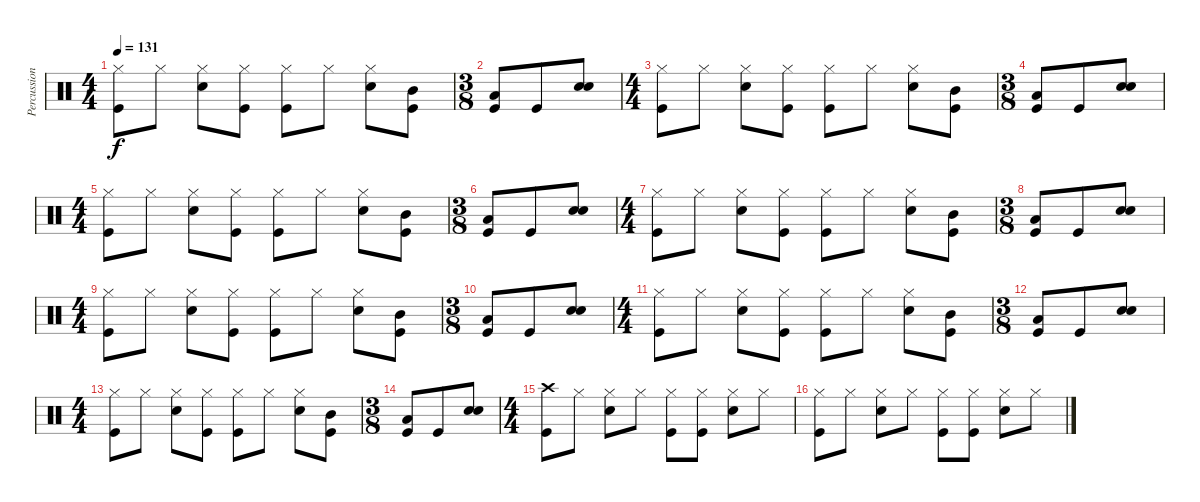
\track ("Percussions" "Percussion") {instrument percussion}
\staff {score}
\articulation defaults
\ts (4 4)
\tempo 131
\clef neutral
\ks c
("Hi-Hat (closed)" "Kick (hit)").8{dy f} "Hi-Hat (closed)".8 ("Hi-Hat (closed)" "Electric Snare (hit)").8 ("Hi-Hat (closed)" "Kick (hit)").8 ("Hi-Hat (closed)" "Kick (hit)").8 "Hi-Hat (closed)".8 ("Hi-Hat (closed)" "Electric Snare (hit)").8 ("Mid Tom (hit)" "Kick (hit)").8 |
\ts (3 8)
("Low Tom (hit)" "Kick (hit)").8 "Kick (hit)".8 ("Electric Snare (hit)" "Electric Snare (hit)").8{bd 120} |
\ts (4 4)
("Hi-Hat (closed)" "Kick (hit)").8 "Hi-Hat (closed)".8 ("Hi-Hat (closed)" "Electric Snare (hit)").8 ("Hi-Hat (closed)" "Kick (hit)").8 ("Hi-Hat (closed)" "Kick (hit)").8 "Hi-Hat (closed)".8 ("Hi-Hat (closed)" "Electric Snare (hit)").8 ("Mid Tom (hit)" "Kick (hit)").8 |
\ts (3 8)
("Low Tom (hit)" "Kick (hit)").8 "Kick (hit)".8 ("Electric Snare (hit)" "Electric Snare (hit)").8{bd 120} |
\ts (4 4)
("Hi-Hat (closed)" "Kick (hit)").8 "Hi-Hat (closed)".8 ("Hi-Hat (closed)" "Electric Snare (hit)").8 ("Hi-Hat (closed)" "Kick (hit)").8 ("Hi-Hat (closed)" "Kick (hit)").8 "Hi-Hat (closed)".8 ("Hi-Hat (closed)" "Electric Snare (hit)").8 ("Mid Tom (hit)" "Kick (hit)").8 |
\ts (3 8)
("Low Tom (hit)" "Kick (hit)").8 "Kick (hit)".8 ("Electric Snare (hit)" "Electric Snare (hit)").8{bd 120} |
\ts (4 4)
("Hi-Hat (closed)" "Kick (hit)").8 "Hi-Hat (closed)".8 ("Hi-Hat (closed)" "Electric Snare (hit)").8 ("Hi-Hat (closed)" "Kick (hit)").8 ("Hi-Hat (closed)" "Kick (hit)").8 "Hi-Hat (closed)".8 ("Hi-Hat (closed)" "Electric Snare (hit)").8 ("Mid Tom (hit)" "Kick (hit)").8 |
\ts (3 8)
("Low Tom (hit)" "Kick (hit)").8 "Kick (hit)".8 ("Electric Snare (hit)" "Electric Snare (hit)").8{bd 120} |
\ts (4 4)
("Hi-Hat (closed)" "Kick (hit)").8 "Hi-Hat (closed)".8 ("Hi-Hat (closed)" "Electric Snare (hit)").8 ("Hi-Hat (closed)" "Kick (hit)").8 ("Hi-Hat (closed)" "Kick (hit)").8 "Hi-Hat (closed)".8 ("Hi-Hat (closed)" "Electric Snare (hit)").8 ("Mid Tom (hit)" "Kick (hit)").8 |
\ts (3 8)
("Low Tom (hit)" "Kick (hit)").8 "Kick (hit)".8 ("Electric Snare (hit)" "Electric Snare (hit)").8{bd 120} |
\ts (4 4)
("Hi-Hat (closed)" "Kick (hit)").8 "Hi-Hat (closed)".8 ("Hi-Hat (closed)" "Electric Snare (hit)").8 ("Hi-Hat (closed)" "Kick (hit)").8 ("Hi-Hat (closed)" "Kick (hit)").8 "Hi-Hat (closed)".8 ("Hi-Hat (closed)" "Electric Snare (hit)").8 ("Mid Tom (hit)" "Kick (hit)").8 |
\ts (3 8)
("Low Tom (hit)" "Kick (hit)").8 "Kick (hit)".8 ("Electric Snare (hit)" "Electric Snare (hit)").8{bd 120} |
\ts (4 4)
("Hi-Hat (closed)" "Kick (hit)").8 "Hi-Hat (closed)".8 ("Hi-Hat (closed)" "Electric Snare (hit)").8 ("Hi-Hat (closed)" "Kick (hit)").8 ("Hi-Hat (closed)" "Kick (hit)").8 "Hi-Hat (closed)".8 ("Hi-Hat (closed)" "Electric Snare (hit)").8 ("Mid Tom (hit)" "Kick (hit)").8 |
\ts (3 8)
("Low Tom (hit)" "Kick (hit)").8 "Kick (hit)".8 ("Electric Snare (hit)" "Electric Snare (hit)").8{bd 120} |
\ts (4 4)
("Crash high (hit)" "Kick (hit)").8 "Hi-Hat (closed)".8 ("Hi-Hat (closed)" "Electric Snare (hit)").8 "Hi-Hat (closed)".8 ("Hi-Hat (closed)" "Kick (hit)").8 ("Hi-Hat (closed)" "Kick (hit)").8 ("Hi-Hat (closed)" "Electric Snare (hit)").8 "Hi-Hat (closed)".8 |
("Hi-Hat (closed)" "Kick (hit)").8 "Hi-Hat (closed)".8 ("Hi-Hat (closed)" "Electric Snare (hit)").8 "Hi-Hat (closed)".8 ("Hi-Hat (closed)" "Kick (hit)").8 ("Hi-Hat (closed)" "Kick (hit)").8 ("Hi-Hat (closed)" "Electric Snare (hit)").8 "Hi-Hat (closed)".8
